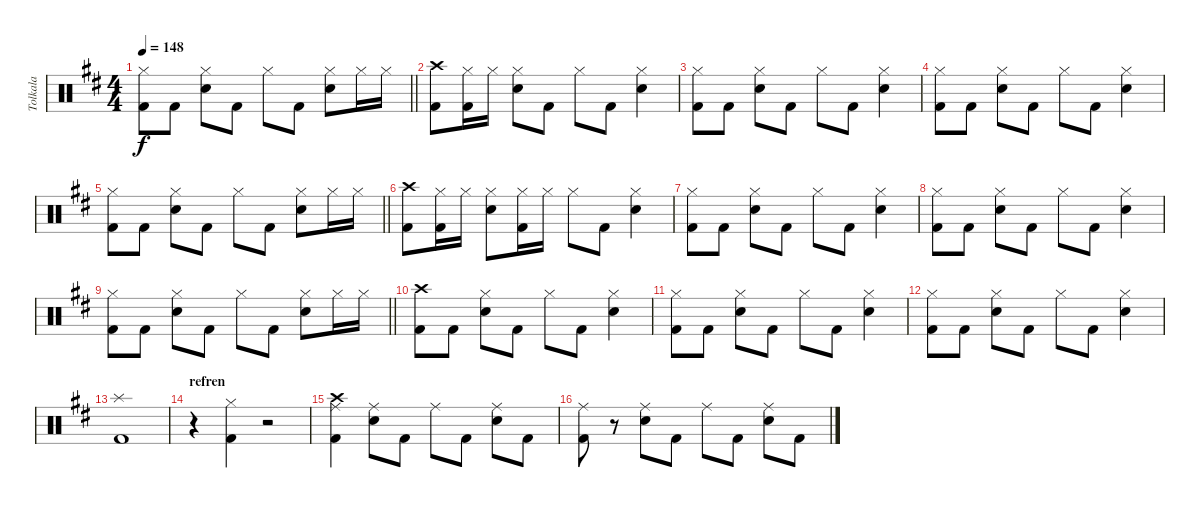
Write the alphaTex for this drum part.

\track ("Tolkala" "Tolkala") {instrument percussion}
\staff {score}
\articulation defaults
\ts (4 4)
\tempo 148
\clef neutral
\barLineRight lightlight
\ks d
("Kick (hit) 2" "Hi-Hat (closed)").8{dy f} "Kick (hit) 2".8 ("Snare (hit) 2" "Hi-Hat (closed)").8 "Kick (hit) 2".8 "Hi-Hat (closed)".8 "Kick (hit) 2".8 ("Snare (hit) 2" "Hi-Hat (closed)").8 "Hi-Hat (closed)".16 "Hi-Hat (closed)".16 |
("Crash high (hit)" "Kick (hit) 2").8 ("Kick (hit) 2" "Hi-Hat (closed)").16 "Hi-Hat (closed)".16 ("Snare (hit) 2" "Hi-Hat (closed)").8 "Kick (hit) 2".8 "Hi-Hat (closed)".8 "Kick (hit) 2".8 ("Snare (hit) 2" "Hi-Hat (closed)").4 |
("Kick (hit) 2" "Hi-Hat (closed)").8 "Kick (hit) 2".8 ("Snare (hit) 2" "Hi-Hat (closed)").8 "Kick (hit) 2".8 "Hi-Hat (closed)".8 "Kick (hit) 2".8 ("Snare (hit) 2" "Hi-Hat (closed)").4 |
("Kick (hit) 2" "Hi-Hat (closed)").8 "Kick (hit) 2".8 ("Snare (hit) 2" "Hi-Hat (closed)").8 "Kick (hit) 2".8 "Hi-Hat (closed)".8 "Kick (hit) 2".8 ("Snare (hit) 2" "Hi-Hat (closed)").4 |
\barLineRight lightlight
("Kick (hit) 2" "Hi-Hat (closed)").8 "Kick (hit) 2".8 ("Snare (hit) 2" "Hi-Hat (closed)").8 "Kick (hit) 2".8 "Hi-Hat (closed)".8 "Kick (hit) 2".8 ("Snare (hit) 2" "Hi-Hat (closed)").8 "Hi-Hat (closed)".16 "Hi-Hat (closed)".16 |
("Crash high (hit)" "Kick (hit) 2").8 ("Kick (hit) 2" "Hi-Hat (closed)").16 "Hi-Hat (closed)".16 ("Snare (hit) 2" "Hi-Hat (closed)").8 ("Kick (hit) 2" "Hi-Hat (closed)").16 "Hi-Hat (closed)".16 "Hi-Hat (closed)".8 "Kick (hit) 2".8 ("Snare (hit) 2" "Hi-Hat (closed)").4 |
("Kick (hit) 2" "Hi-Hat (closed)").8 "Kick (hit) 2".8 ("Snare (hit) 2" "Hi-Hat (closed)").8 "Kick (hit) 2".8 "Hi-Hat (closed)".8 "Kick (hit) 2".8 ("Snare (hit) 2" "Hi-Hat (closed)").4 |
("Kick (hit) 2" "Hi-Hat (closed)").8 "Kick (hit) 2".8 ("Snare (hit) 2" "Hi-Hat (closed)").8 "Kick (hit) 2".8 "Hi-Hat (closed)".8 "Kick (hit) 2".8 ("Snare (hit) 2" "Hi-Hat (closed)").4 |
\barLineRight lightlight
("Kick (hit) 2" "Hi-Hat (closed)").8 "Kick (hit) 2".8 ("Snare (hit) 2" "Hi-Hat (closed)").8 "Kick (hit) 2".8 "Hi-Hat (closed)".8 "Kick (hit) 2".8 ("Snare (hit) 2" "Hi-Hat (closed)").8 "Hi-Hat (closed)".16 "Hi-Hat (closed)".16 |
("Crash high (hit)" "Kick (hit) 2").8 "Kick (hit) 2".8 ("Snare (hit) 2" "Hi-Hat (closed)").8 "Kick (hit) 2".8 "Hi-Hat (closed)".8 "Kick (hit) 2".8 ("Snare (hit) 2" "Hi-Hat (closed)").4 |
("Kick (hit) 2" "Hi-Hat (closed)").8 "Kick (hit) 2".8 ("Snare (hit) 2" "Hi-Hat (closed)").8 "Kick (hit) 2".8 "Hi-Hat (closed)".8 "Kick (hit) 2".8 ("Snare (hit) 2" "Hi-Hat (closed)").4 |
("Kick (hit) 2" "Hi-Hat (closed)").8 "Kick (hit) 2".8 ("Snare (hit) 2" "Hi-Hat (closed)").8 "Kick (hit) 2".8 "Hi-Hat (closed)".8 "Kick (hit) 2".8 ("Snare (hit) 2" "Hi-Hat (closed)").4 |
("Kick (hit) 2" "Splash (hit)").1 |
\section ("" "refren")
r.4 ("Kick (hit) 2" "Hi-Hat (closed)").4 r.2 |
("Crash high (hit)" "Kick (hit) 2" "Ride (middle)").4 ("Snare (hit) 2" "Ride (middle)").8 "Kick (hit) 2".8 "Ride (middle)".8 "Kick (hit) 2".8 ("Snare (hit) 2" "Ride (middle)").8 "Kick (hit) 2".8 |
("Kick (hit) 2" "Ride (middle)").8 r.8 ("Snare (hit) 2" "Ride (middle)").8 "Kick (hit) 2".8 "Ride (middle)".8 "Kick (hit) 2".8 ("Snare (hit) 2" "Ride (middle)").8 "Kick (hit) 2".8
